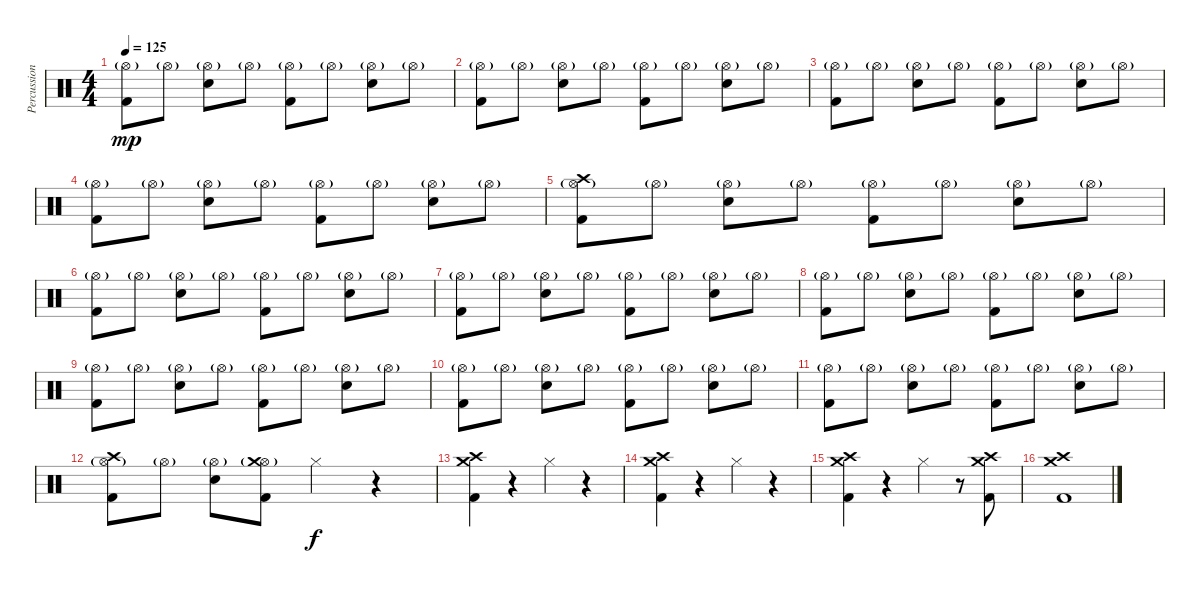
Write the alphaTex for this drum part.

\track ("Percussions" "Percussion") {instrument percussion}
\staff {score}
\articulation defaults
\ts (4 4)
\tempo 125
\clef neutral
\ks c
("Hi-Hat (open)"{g} "Kick (hit) 2").8{dy mp} "Hi-Hat (open)"{g}.8 ("Hi-Hat (open)"{g} "Snare (hit) 2").8 "Hi-Hat (open)"{g}.8 ("Hi-Hat (open)"{g} "Kick (hit) 2").8 "Hi-Hat (open)"{g}.8 ("Hi-Hat (open)"{g} "Snare (hit) 2").8 "Hi-Hat (open)"{g}.8 |
("Hi-Hat (open)"{g} "Kick (hit) 2").8 "Hi-Hat (open)"{g}.8 ("Hi-Hat (open)"{g} "Snare (hit) 2").8 "Hi-Hat (open)"{g}.8 ("Hi-Hat (open)"{g} "Kick (hit) 2").8 "Hi-Hat (open)"{g}.8 ("Hi-Hat (open)"{g} "Snare (hit) 2").8 "Hi-Hat (open)"{g}.8 |
("Hi-Hat (open)"{g} "Kick (hit) 2").8 "Hi-Hat (open)"{g}.8 ("Hi-Hat (open)"{g} "Snare (hit) 2").8 "Hi-Hat (open)"{g}.8 ("Hi-Hat (open)"{g} "Kick (hit) 2").8 "Hi-Hat (open)"{g}.8 ("Hi-Hat (open)"{g} "Snare (hit) 2").8 "Hi-Hat (open)"{g}.8 |
("Hi-Hat (open)"{g} "Kick (hit) 2").8 "Hi-Hat (open)"{g}.8 ("Hi-Hat (open)"{g} "Snare (hit) 2").8 "Hi-Hat (open)"{g}.8 ("Hi-Hat (open)"{g} "Kick (hit) 2").8 "Hi-Hat (open)"{g}.8 ("Hi-Hat (open)"{g} "Snare (hit) 2").8 "Hi-Hat (open)"{g}.8 |
("Hi-Hat (open)"{g} "Crash high (hit)" "Kick (hit) 2").8 "Hi-Hat (open)"{g}.8 ("Hi-Hat (open)"{g} "Snare (hit) 2").8 "Hi-Hat (open)"{g}.8 ("Hi-Hat (open)"{g} "Kick (hit) 2").8 "Hi-Hat (open)"{g}.8 ("Hi-Hat (open)"{g} "Snare (hit) 2").8 "Hi-Hat (open)"{g}.8 |
("Hi-Hat (open)"{g} "Kick (hit) 2").8 "Hi-Hat (open)"{g}.8 ("Hi-Hat (open)"{g} "Snare (hit) 2").8 "Hi-Hat (open)"{g}.8 ("Hi-Hat (open)"{g} "Kick (hit) 2").8 "Hi-Hat (open)"{g}.8 ("Hi-Hat (open)"{g} "Snare (hit) 2").8 "Hi-Hat (open)"{g}.8 |
("Hi-Hat (open)"{g} "Kick (hit) 2").8 "Hi-Hat (open)"{g}.8 ("Hi-Hat (open)"{g} "Snare (hit) 2").8 "Hi-Hat (open)"{g}.8 ("Hi-Hat (open)"{g} "Kick (hit) 2").8 "Hi-Hat (open)"{g}.8 ("Hi-Hat (open)"{g} "Snare (hit) 2").8 "Hi-Hat (open)"{g}.8 |
("Hi-Hat (open)"{g} "Kick (hit) 2").8 "Hi-Hat (open)"{g}.8 ("Hi-Hat (open)"{g} "Snare (hit) 2").8 "Hi-Hat (open)"{g}.8 ("Hi-Hat (open)"{g} "Kick (hit) 2").8 "Hi-Hat (open)"{g}.8 ("Hi-Hat (open)"{g} "Snare (hit) 2").8 "Hi-Hat (open)"{g}.8 |
("Hi-Hat (open)"{g} "Kick (hit) 2").8 "Hi-Hat (open)"{g}.8 ("Hi-Hat (open)"{g} "Snare (hit) 2").8 "Hi-Hat (open)"{g}.8 ("Hi-Hat (open)"{g} "Kick (hit) 2").8 "Hi-Hat (open)"{g}.8 ("Hi-Hat (open)"{g} "Snare (hit) 2").8 "Hi-Hat (open)"{g}.8 |
("Hi-Hat (open)"{g} "Kick (hit) 2").8 "Hi-Hat (open)"{g}.8 ("Hi-Hat (open)"{g} "Snare (hit) 2").8 "Hi-Hat (open)"{g}.8 ("Hi-Hat (open)"{g} "Kick (hit) 2").8 "Hi-Hat (open)"{g}.8 ("Hi-Hat (open)"{g} "Snare (hit) 2").8 "Hi-Hat (open)"{g}.8 |
("Hi-Hat (open)"{g} "Kick (hit) 2").8 "Hi-Hat (open)"{g}.8 ("Hi-Hat (open)"{g} "Snare (hit) 2").8 "Hi-Hat (open)"{g}.8 ("Hi-Hat (open)"{g} "Kick (hit) 2").8 "Hi-Hat (open)"{g}.8 ("Hi-Hat (open)"{g} "Snare (hit) 2").8 "Hi-Hat (open)"{g}.8 |
("Hi-Hat (open)"{g} "Crash high (hit)" "Kick (hit) 2").8 "Hi-Hat (open)"{g}.8 ("Hi-Hat (open)"{g} "Snare (hit) 2").8 ("Hi-Hat (open)"{g} "Crash medium (hit)" "Kick (hit) 2").8 "Hi-Hat (closed)".4{dy f} r.4 |
("Kick (hit) 2" "Crash high (hit)" "Crash medium (hit)").4 r.4 "Hi-Hat (closed)".4 r.4 |
("Kick (hit) 2" "Crash high (hit)" "Crash medium (hit)").4 r.4 "Hi-Hat (closed)".4 r.4 |
("Kick (hit) 2" "Crash high (hit)" "Crash medium (hit)").4 r.4 "Hi-Hat (closed)".4 r.8 ("Crash medium (hit)" "Crash high (hit)" "Kick (hit) 2").8 |
("Crash medium (hit)" "Crash high (hit)" "Kick (hit) 2").1
